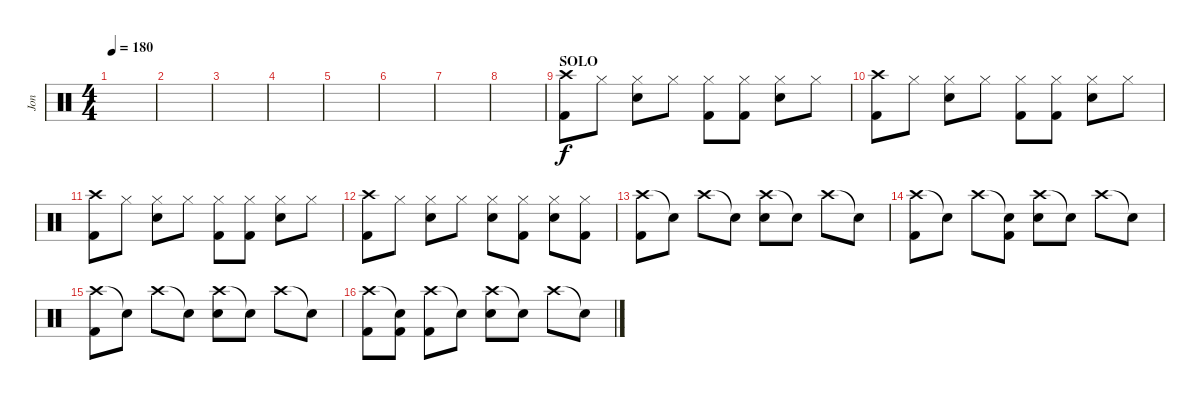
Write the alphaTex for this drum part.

\track ("Jon" "Jon") {instrument percussion}
\staff {score}
\articulation defaults
\ts (4 4)
\tempo 180
\clef neutral
\ks c
|
|
|
|
|
|
|
|
\section ("" "SOLO")
("Crash high (hit)" "Kick (hit) 2").8 "Hi-Hat (closed)".8 ("Hi-Hat (closed)" "Snare (hit) 2").8 "Hi-Hat (closed)".8 ("Hi-Hat (closed)" "Kick (hit) 2").8 ("Hi-Hat (closed)" "Kick (hit) 2").8 ("Hi-Hat (closed)" "Snare (hit) 2").8 "Hi-Hat (closed)".8 |
("Crash high (hit)" "Kick (hit) 2").8 "Hi-Hat (closed)".8 ("Hi-Hat (closed)" "Snare (hit) 2").8 "Hi-Hat (closed)".8 ("Hi-Hat (closed)" "Kick (hit) 2").8 ("Hi-Hat (closed)" "Kick (hit) 2").8 ("Hi-Hat (closed)" "Snare (hit) 2").8 "Hi-Hat (closed)".8 |
("Crash high (hit)" "Kick (hit) 2").8 "Hi-Hat (closed)".8 ("Hi-Hat (closed)" "Snare (hit) 2").8 "Hi-Hat (closed)".8 ("Hi-Hat (closed)" "Kick (hit) 2").8 ("Hi-Hat (closed)" "Kick (hit) 2").8 ("Hi-Hat (closed)" "Snare (hit) 2").8 "Hi-Hat (closed)".8 |
("Crash high (hit)" "Kick (hit) 2").8 "Hi-Hat (closed)".8 ("Hi-Hat (closed)" "Snare (hit) 2").8 "Hi-Hat (closed)".8 ("Hi-Hat (closed)" "Snare (hit) 2").8 ("Hi-Hat (closed)" "Kick (hit) 2").8 ("Hi-Hat (closed)" "Snare (hit) 2").8 ("Hi-Hat (closed)" "Kick (hit) 2").8 |
("Crash high (hit)" "Kick (hit) 2").8 "Snare (hit)"{t}.8 "Crash high (hit)".8 "Snare (hit)"{t}.8 ("Crash high (hit)" "Snare (hit) 2").8 "Snare (hit)"{t}.8 "Crash high (hit)".8 "Snare (hit)"{t}.8 |
("Crash high (hit)" "Kick (hit) 2").8 "Snare (hit)"{t}.8 "Crash high (hit)".8 ("Snare (hit)"{t} "Kick (hit) 2").8 ("Crash high (hit)" "Snare (hit) 2").8 "Snare (hit)"{t}.8 "Crash high (hit)".8 "Snare (hit)"{t}.8 |
("Crash high (hit)" "Kick (hit) 2").8 "Snare (hit)"{t}.8 "Crash high (hit)".8 "Snare (hit)"{t}.8 ("Crash high (hit)" "Snare (hit) 2").8 "Snare (hit)"{t}.8 "Crash high (hit)".8 "Snare (hit)"{t}.8 |
("Crash high (hit)" "Kick (hit) 2").8 ("Snare (hit)"{t} "Kick (hit) 2").8 ("Crash high (hit)" "Kick (hit) 2").8 "Snare (hit)"{t}.8 ("Crash high (hit)" "Snare (hit) 2").8 "Snare (hit)"{t}.8 "Crash high (hit)".8 "Snare (hit)"{t}.8
